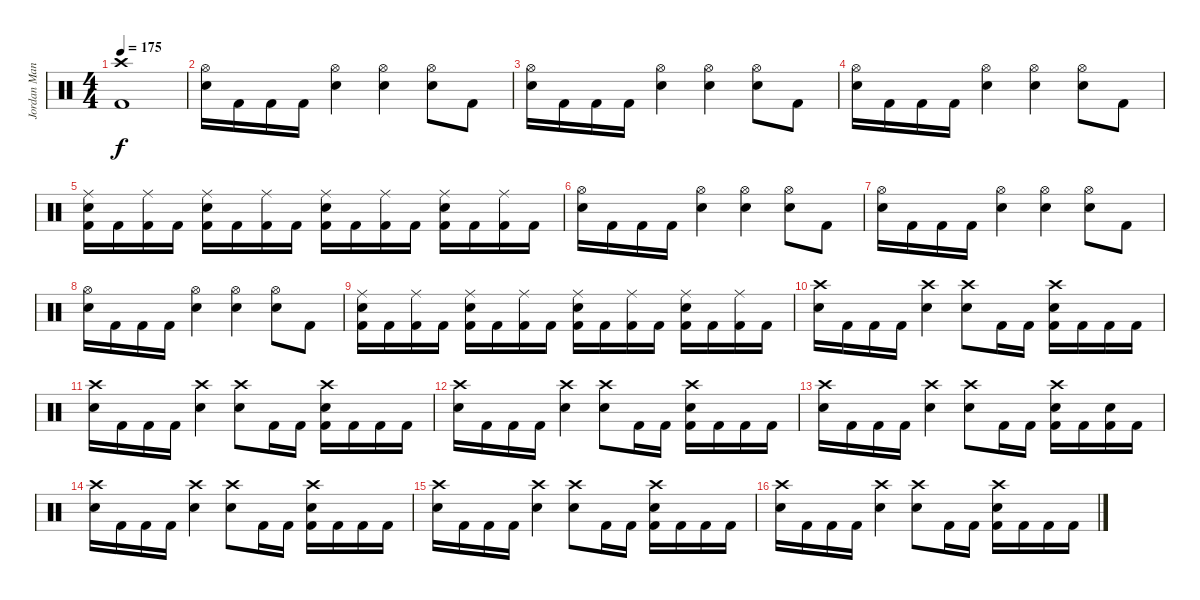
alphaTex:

\track ("Jordan Mancini" "Jordan Man") {instrument percussion}
\staff {score}
\articulation defaults
\ts (4 4)
\tempo 175
\clef neutral
\ks c
("Crash high (hit)" "Kick (hit) 2").1{dy f} |
("Hi-Hat (open)" "Snare (hit) 2").16 "Kick (hit) 2".16 "Kick (hit) 2".16 "Kick (hit) 2".16 ("Hi-Hat (open)" "Snare (hit) 2").4 ("Hi-Hat (open)" "Snare (hit) 2").4 ("Hi-Hat (open)" "Snare (hit) 2").8 "Kick (hit) 2".8 |
("Hi-Hat (open)" "Snare (hit) 2").16 "Kick (hit) 2".16 "Kick (hit) 2".16 "Kick (hit) 2".16 ("Hi-Hat (open)" "Snare (hit) 2").4 ("Hi-Hat (open)" "Snare (hit) 2").4 ("Hi-Hat (open)" "Snare (hit) 2").8 "Kick (hit) 2".8 |
("Hi-Hat (open)" "Snare (hit) 2").16 "Kick (hit) 2".16 "Kick (hit) 2".16 "Kick (hit) 2".16 ("Hi-Hat (open)" "Snare (hit) 2").4 ("Hi-Hat (open)" "Snare (hit) 2").4 ("Hi-Hat (open)" "Snare (hit) 2").8 "Kick (hit) 2".8 |
("Ride (middle)" "Snare (hit) 2" "Kick (hit) 2").16 "Kick (hit) 2".16 ("Ride (middle)" "Kick (hit) 2").16 "Kick (hit) 2".16 ("Ride (middle)" "Snare (hit) 2" "Kick (hit) 2").16 "Kick (hit) 2".16 ("Ride (middle)" "Kick (hit) 2").16 "Kick (hit) 2".16 ("Ride (middle)" "Snare (hit) 2" "Kick (hit) 2").16 "Kick (hit) 2".16 ("Ride (middle)" "Kick (hit) 2").16 "Kick (hit) 2".16 ("Ride (middle)" "Snare (hit) 2" "Kick (hit) 2").16 "Kick (hit) 2".16 ("Ride (middle)" "Kick (hit) 2").16 "Kick (hit) 2".16 |
("Hi-Hat (open)" "Snare (hit) 2").16 "Kick (hit) 2".16 "Kick (hit) 2".16 "Kick (hit) 2".16 ("Hi-Hat (open)" "Snare (hit) 2").4 ("Hi-Hat (open)" "Snare (hit) 2").4 ("Hi-Hat (open)" "Snare (hit) 2").8 "Kick (hit) 2".8 |
("Hi-Hat (open)" "Snare (hit) 2").16 "Kick (hit) 2".16 "Kick (hit) 2".16 "Kick (hit) 2".16 ("Hi-Hat (open)" "Snare (hit) 2").4 ("Hi-Hat (open)" "Snare (hit) 2").4 ("Hi-Hat (open)" "Snare (hit) 2").8 "Kick (hit) 2".8 |
("Hi-Hat (open)" "Snare (hit) 2").16 "Kick (hit) 2".16 "Kick (hit) 2".16 "Kick (hit) 2".16 ("Hi-Hat (open)" "Snare (hit) 2").4 ("Hi-Hat (open)" "Snare (hit) 2").4 ("Hi-Hat (open)" "Snare (hit) 2").8 "Kick (hit) 2".8 |
("Ride (middle)" "Snare (hit) 2" "Kick (hit) 2").16 "Kick (hit) 2".16 ("Ride (middle)" "Kick (hit) 2").16 "Kick (hit) 2".16 ("Ride (middle)" "Snare (hit) 2" "Kick (hit) 2").16 "Kick (hit) 2".16 ("Ride (middle)" "Kick (hit) 2").16 "Kick (hit) 2".16 ("Ride (middle)" "Snare (hit) 2" "Kick (hit) 2").16 "Kick (hit) 2".16 ("Ride (middle)" "Kick (hit) 2").16 "Kick (hit) 2".16 ("Ride (middle)" "Snare (hit) 2" "Kick (hit) 2").16 "Kick (hit) 2".16 ("Ride (middle)" "Kick (hit) 2").16 "Kick (hit) 2".16 |
("Crash high (hit)" "Snare (hit) 2").16 "Kick (hit) 2".16 "Kick (hit) 2".16 "Kick (hit) 2".16 ("Crash high (hit)" "Snare (hit) 2").4 ("Crash high (hit)" "Snare (hit) 2").8 "Kick (hit) 2".16 "Kick (hit) 2".16 ("Crash high (hit)" "Snare (hit) 2" "Kick (hit) 2").16 "Kick (hit) 2".16 "Kick (hit) 2".16 "Kick (hit) 2".16 |
("Crash high (hit)" "Snare (hit) 2").16 "Kick (hit) 2".16 "Kick (hit) 2".16 "Kick (hit) 2".16 ("Crash high (hit)" "Snare (hit) 2").4 ("Crash high (hit)" "Snare (hit) 2").8 "Kick (hit) 2".16 "Kick (hit) 2".16 ("Crash high (hit)" "Snare (hit) 2" "Kick (hit) 2").16 "Kick (hit) 2".16 "Kick (hit) 2".16 "Kick (hit) 2".16 |
("Crash high (hit)" "Snare (hit) 2").16 "Kick (hit) 2".16 "Kick (hit) 2".16 "Kick (hit) 2".16 ("Crash high (hit)" "Snare (hit) 2").4 ("Crash high (hit)" "Snare (hit) 2").8 "Kick (hit) 2".16 "Kick (hit) 2".16 ("Crash high (hit)" "Snare (hit) 2" "Kick (hit) 2").16 "Kick (hit) 2".16 "Kick (hit) 2".16 "Kick (hit) 2".16 |
("Crash high (hit)" "Snare (hit) 2").16 "Kick (hit) 2".16 "Kick (hit) 2".16 "Kick (hit) 2".16 ("Crash high (hit)" "Snare (hit) 2").4 ("Crash high (hit)" "Snare (hit) 2").8 "Kick (hit) 2".16 "Kick (hit) 2".16 ("Crash high (hit)" "Snare (hit) 2" "Kick (hit) 2").16 "Kick (hit) 2".16 ("Snare (hit) 2" "Kick (hit) 2").16 "Kick (hit) 2".16 |
("Crash high (hit)" "Snare (hit) 2").16 "Kick (hit) 2".16 "Kick (hit) 2".16 "Kick (hit) 2".16 ("Crash high (hit)" "Snare (hit) 2").4 ("Crash high (hit)" "Snare (hit) 2").8 "Kick (hit) 2".16 "Kick (hit) 2".16 ("Crash high (hit)" "Snare (hit) 2" "Kick (hit) 2").16 "Kick (hit) 2".16 "Kick (hit) 2".16 "Kick (hit) 2".16 |
("Crash high (hit)" "Snare (hit) 2").16 "Kick (hit) 2".16 "Kick (hit) 2".16 "Kick (hit) 2".16 ("Crash high (hit)" "Snare (hit) 2").4 ("Crash high (hit)" "Snare (hit) 2").8 "Kick (hit) 2".16 "Kick (hit) 2".16 ("Crash high (hit)" "Snare (hit) 2" "Kick (hit) 2").16 "Kick (hit) 2".16 "Kick (hit) 2".16 "Kick (hit) 2".16 |
("Crash high (hit)" "Snare (hit) 2").16 "Kick (hit) 2".16 "Kick (hit) 2".16 "Kick (hit) 2".16 ("Crash high (hit)" "Snare (hit) 2").4 ("Crash high (hit)" "Snare (hit) 2").8 "Kick (hit) 2".16 "Kick (hit) 2".16 ("Crash high (hit)" "Snare (hit) 2" "Kick (hit) 2").16 "Kick (hit) 2".16 "Kick (hit) 2".16 "Kick (hit) 2".16
